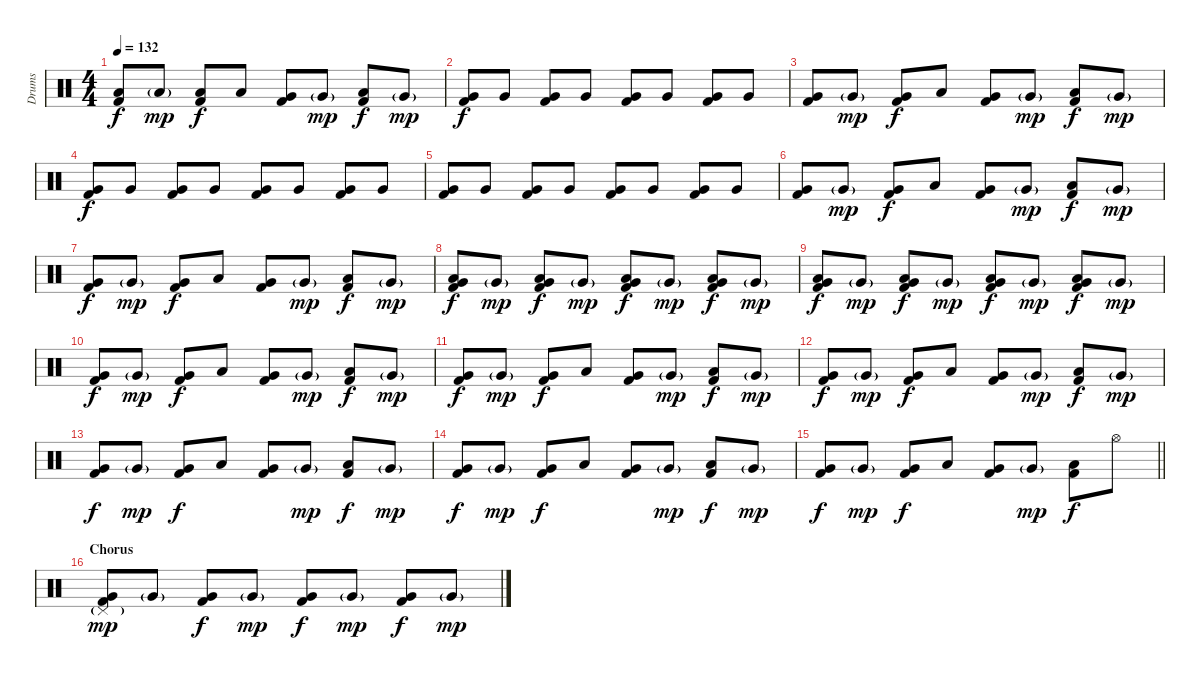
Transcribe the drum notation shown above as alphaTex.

\track ("Drums" "Drums") {instrument percussion}
\staff {score}
\articulation defaults
\ts (4 4)
\tempo 132
\clef neutral
\ks c
("Low Tom (hit)" "Kick (hit) 2").8{dy f} "Low Tom (hit)"{g}.8{dy mp} ("Low Tom (hit)" "Kick (hit) 2").8{dy f} "Low Tom (hit)".8 ("Very Low Tom (hit)" "Kick (hit) 2").8 "Very Low Tom (hit)"{g}.8{dy mp} ("Low Tom (hit)" "Kick (hit) 2").8{dy f} "Very Low Tom (hit)"{g}.8{dy mp} |
("Very Low Tom (hit)" "Kick (hit) 2").8{dy f} "Very Low Tom (hit)".8 ("Very Low Tom (hit)" "Kick (hit) 2").8 "Very Low Tom (hit)".8 ("Very Low Tom (hit)" "Kick (hit) 2").8 "Very Low Tom (hit)".8 ("Very Low Tom (hit)" "Kick (hit) 2").8 "Very Low Tom (hit)".8 |
("Very Low Tom (hit)" "Kick (hit) 2").8 "Very Low Tom (hit)"{g}.8{dy mp} ("Very Low Tom (hit)" "Kick (hit) 2").8{dy f} "Low Tom (hit)".8 ("Very Low Tom (hit)" "Kick (hit) 2").8 "Very Low Tom (hit)"{g}.8{dy mp} ("Low Tom (hit)" "Kick (hit) 2").8{dy f} "Very Low Tom (hit)"{g}.8{dy mp} |
("Very Low Tom (hit)" "Kick (hit) 2").8{dy f} "Very Low Tom (hit)".8 ("Very Low Tom (hit)" "Kick (hit) 2").8 "Very Low Tom (hit)".8 ("Very Low Tom (hit)" "Kick (hit) 2").8 "Very Low Tom (hit)".8 ("Very Low Tom (hit)" "Kick (hit) 2").8 "Very Low Tom (hit)".8 |
("Very Low Tom (hit)" "Kick (hit) 2").8 "Very Low Tom (hit)".8 ("Very Low Tom (hit)" "Kick (hit) 2").8 "Very Low Tom (hit)".8 ("Very Low Tom (hit)" "Kick (hit) 2").8 "Very Low Tom (hit)".8 ("Very Low Tom (hit)" "Kick (hit) 2").8 "Very Low Tom (hit)".8 |
("Very Low Tom (hit)" "Kick (hit) 2").8 "Very Low Tom (hit)"{g}.8{dy mp} ("Very Low Tom (hit)" "Kick (hit) 2").8{dy f} "Low Tom (hit)".8 ("Very Low Tom (hit)" "Kick (hit) 2").8 "Very Low Tom (hit)"{g}.8{dy mp} ("Low Tom (hit)" "Kick (hit) 2").8{dy f} "Very Low Tom (hit)"{g}.8{dy mp} |
("Very Low Tom (hit)" "Kick (hit) 2").8{dy f} "Very Low Tom (hit)"{g}.8{dy mp} ("Very Low Tom (hit)" "Kick (hit) 2").8{dy f} "Low Tom (hit)".8 ("Very Low Tom (hit)" "Kick (hit) 2").8 "Very Low Tom (hit)"{g}.8{dy mp} ("Low Tom (hit)" "Kick (hit) 2").8{dy f} "Very Low Tom (hit)"{g}.8{dy mp} |
("Low Tom (hit)" "Very Low Tom (hit)" "Kick (hit) 2").8{dy f} "Very Low Tom (hit)"{g}.8{dy mp} ("Low Tom (hit)" "Very Low Tom (hit)" "Kick (hit) 2").8{dy f} "Very Low Tom (hit)"{g}.8{dy mp} ("Low Tom (hit)" "Very Low Tom (hit)" "Kick (hit) 2").8{dy f} "Very Low Tom (hit)"{g}.8{dy mp} ("Low Tom (hit)" "Very Low Tom (hit)" "Kick (hit) 2").8{dy f} "Very Low Tom (hit)"{g}.8{dy mp} |
("Low Tom (hit)" "Very Low Tom (hit)" "Kick (hit) 2").8{dy f} "Very Low Tom (hit)"{g}.8{dy mp} ("Low Tom (hit)" "Very Low Tom (hit)" "Kick (hit) 2").8{dy f} "Very Low Tom (hit)"{g}.8{dy mp} ("Low Tom (hit)" "Very Low Tom (hit)" "Kick (hit) 2").8{dy f} "Very Low Tom (hit)"{g}.8{dy mp} ("Low Tom (hit)" "Very Low Tom (hit)" "Kick (hit) 2").8{dy f} "Very Low Tom (hit)"{g}.8{dy mp} |
("Very Low Tom (hit)" "Kick (hit) 2").8{dy f} "Very Low Tom (hit)"{g}.8{dy mp} ("Very Low Tom (hit)" "Kick (hit) 2").8{dy f} "Low Tom (hit)".8 ("Very Low Tom (hit)" "Kick (hit) 2").8 "Very Low Tom (hit)"{g}.8{dy mp} ("Low Tom (hit)" "Kick (hit) 2").8{dy f} "Very Low Tom (hit)"{g}.8{dy mp} |
("Very Low Tom (hit)" "Kick (hit) 2").8{dy f} "Very Low Tom (hit)"{g}.8{dy mp} ("Very Low Tom (hit)" "Kick (hit) 2").8{dy f} "Low Tom (hit)".8 ("Very Low Tom (hit)" "Kick (hit) 2").8 "Very Low Tom (hit)"{g}.8{dy mp} ("Low Tom (hit)" "Kick (hit) 2").8{dy f} "Very Low Tom (hit)"{g}.8{dy mp} |
("Very Low Tom (hit)" "Kick (hit) 2").8{dy f} "Very Low Tom (hit)"{g}.8{dy mp} ("Very Low Tom (hit)" "Kick (hit) 2").8{dy f} "Low Tom (hit)".8 ("Very Low Tom (hit)" "Kick (hit) 2").8 "Very Low Tom (hit)"{g}.8{dy mp} ("Low Tom (hit)" "Kick (hit) 2").8{dy f} "Very Low Tom (hit)"{g}.8{dy mp} |
("Very Low Tom (hit)" "Kick (hit) 2").8{dy f} "Very Low Tom (hit)"{g}.8{dy mp} ("Very Low Tom (hit)" "Kick (hit) 2").8{dy f} "Low Tom (hit)".8 ("Very Low Tom (hit)" "Kick (hit) 2").8 "Very Low Tom (hit)"{g}.8{dy mp} ("Low Tom (hit)" "Kick (hit) 2").8{dy f} "Very Low Tom (hit)"{g}.8{dy mp} |
("Very Low Tom (hit)" "Kick (hit) 2").8{dy f} "Very Low Tom (hit)"{g}.8{dy mp} ("Very Low Tom (hit)" "Kick (hit) 2").8{dy f} "Low Tom (hit)".8 ("Very Low Tom (hit)" "Kick (hit) 2").8 "Very Low Tom (hit)"{g}.8{dy mp} ("Low Tom (hit)" "Kick (hit) 2").8{dy f} "Very Low Tom (hit)"{g}.8{dy mp} |
\barLineRight lightlight
("Very Low Tom (hit)" "Kick (hit) 2").8{dy f} "Very Low Tom (hit)"{g}.8{dy mp} ("Very Low Tom (hit)" "Kick (hit) 2").8{dy f} "Low Tom (hit)".8 ("Very Low Tom (hit)" "Kick (hit) 2").8 "Very Low Tom (hit)"{g}.8{dy mp} ("Low Tom (hit)" "Kick (hit) 2").8{dy f} "Hi-Hat (open)".8 |
\section ("" "Chorus")
("Pedal Hi-Hat (hit)"{g} "Very Low Tom (hit)" "Kick (hit) 2").8{dy mp} "Very Low Tom (hit)"{g}.8 ("Very Low Tom (hit)" "Kick (hit) 2").8{dy f} "Very Low Tom (hit)"{g}.8{dy mp} ("Very Low Tom (hit)" "Kick (hit) 2").8{dy f} "Very Low Tom (hit)"{g}.8{dy mp} ("Very Low Tom (hit)" "Kick (hit) 2").8{dy f} "Very Low Tom (hit)"{g}.8{dy mp}
